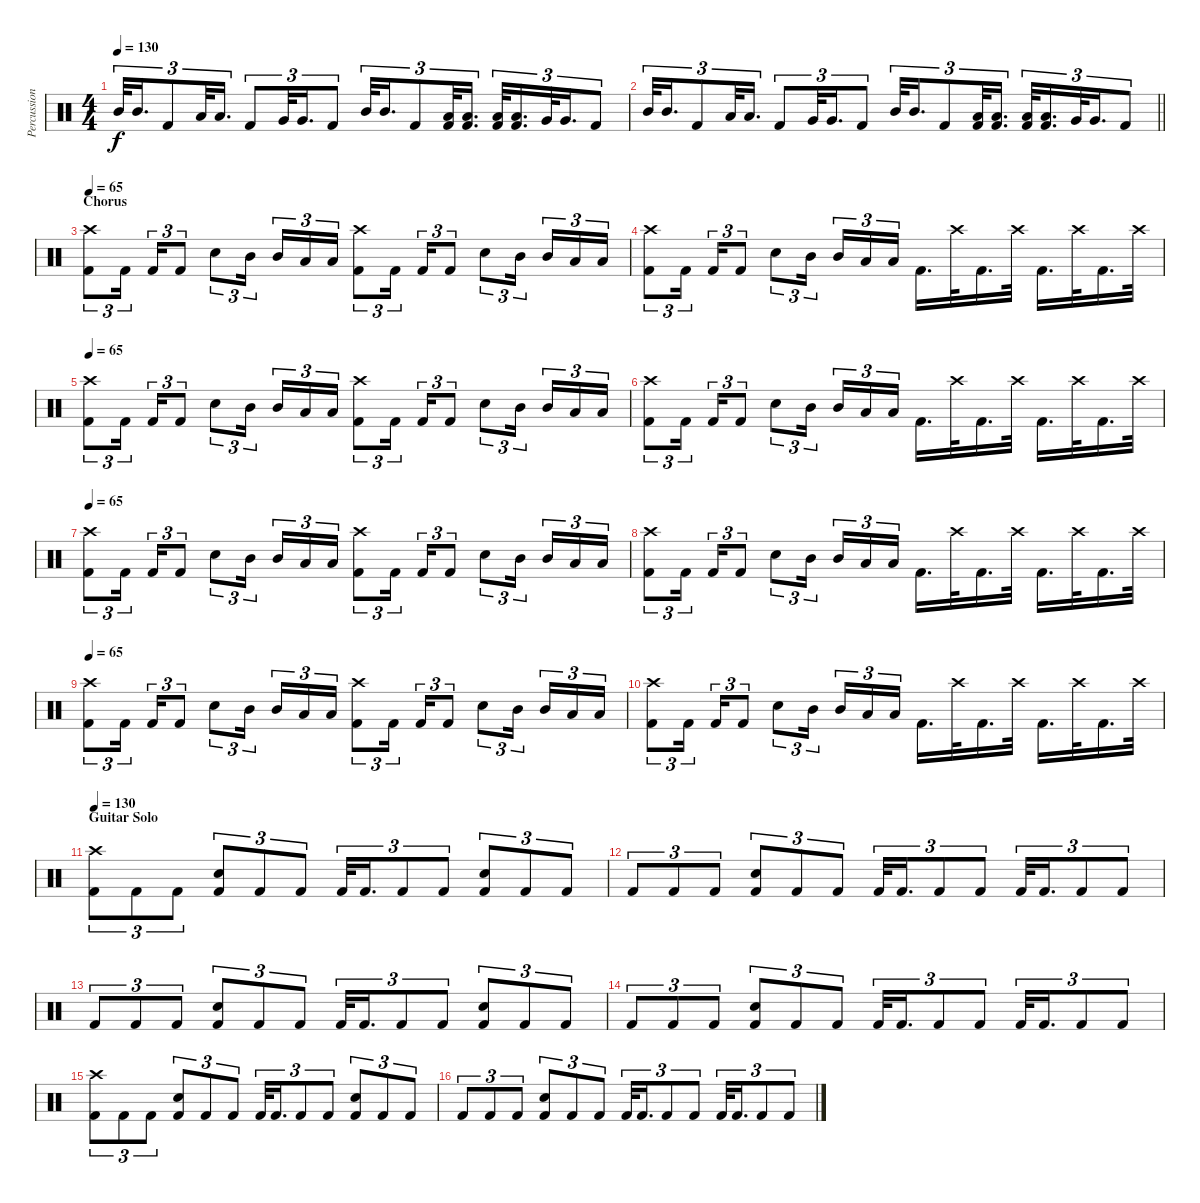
\track ("Percussions" "Percussion") {instrument percussion}
\staff {score}
\articulation defaults
\ts (4 4)
\tempo 130
\clef neutral
\ks c "Mid Tom (hit)".32{tu (3 2) dy f} "Mid Tom (hit)".16{d tu (3 2)} "Kick (hit) 2".8{tu (3 2)} "Low Tom (hit)".32{tu (3 2)} "Low Tom (hit)".16{d tu (3 2)} "Kick (hit) 2".8{tu (3 2)} "Very Low Tom (hit)".32{tu (3 2)} "Very Low Tom (hit)".16{d tu (3 2)} "Kick (hit) 2".8{tu (3 2)} "Mid Tom (hit)".32{tu (3 2)} "Mid Tom (hit)".16{d tu (3 2)} "Kick (hit) 2".8{tu (3 2)}
("Low Tom (hit)" "Kick (hit) 2").32{tu (3 2)} ("Low Tom (hit)" "Kick (hit) 2").16{d tu (3 2)} ("Low Tom (hit)" "Kick (hit) 2").32{tu (3 2)} ("Low Tom (hit)" "Kick (hit) 2").16{d tu (3 2)} "Very Low Tom (hit)".32{tu (3 2)} "Very Low Tom (hit)".16{d tu (3 2)} "Kick (hit) 2".8{tu (3 2)} |
\barLineRight lightlight "Mid Tom (hit)".32{tu (3 2)} "Mid Tom (hit)".16{d tu (3 2)} "Kick (hit) 2".8{tu (3 2)} "Low Tom (hit)".32{tu (3 2)} "Low Tom (hit)".16{d tu (3 2)} "Kick (hit) 2".8{tu (3 2)} "Very Low Tom (hit)".32{tu (3 2)} "Very Low Tom (hit)".16{d tu (3 2)} "Kick (hit) 2".8{tu (3 2)} "Mid Tom (hit)".32{tu (3 2)} "Mid Tom (hit)".16{d tu (3 2)} "Kick (hit) 2".8{tu (3 2)}
("Low Tom (hit)" "Kick (hit) 2").32{tu (3 2)} ("Low Tom (hit)" "Kick (hit) 2").16{d tu (3 2)} ("Low Tom (hit)" "Kick (hit) 2").32{tu (3 2)} ("Low Tom (hit)" "Kick (hit) 2").16{d tu (3 2)} "Very Low Tom (hit)".32{tu (3 2)} "Very Low Tom (hit)".16{d tu (3 2)} "Kick (hit) 2".8{tu (3 2)} |
\section ("" "Chorus ")
\tempo 65
("Crash high (hit)" "Kick (hit) 2").8{tu (3 2)} "Kick (hit) 2".16{tu (3 2) beam splitsecondary} "Kick (hit) 2".16{tu (3 2)} "Kick (hit) 2".8{tu (3 2)} "Electric Snare (hit)".8{tu (3 2)} "Mid Tom (hit)".16{tu (3 2) beam splitsecondary} "Mid Tom (hit)".16{tu (3 2)} "Low Tom (hit)".16{tu (3 2)} "Low Tom (hit)".16{tu (3 2)} ("Crash high (hit)" "Kick (hit) 2").8{tu (3 2)} "Kick (hit) 2".16{tu (3 2) beam splitsecondary} "Kick (hit) 2".16{tu (3 2)} "Kick (hit) 2".8{tu (3 2)} "Electric Snare (hit)".8{tu (3 2)} "Mid Tom (hit)".16{tu (3 2) beam splitsecondary} "Mid Tom (hit)".16{tu (3 2)} "Low Tom (hit)".16{tu (3 2)} "Low Tom (hit)".16{tu (3 2)} |
("Crash high (hit)" "Kick (hit) 2").8{tu (3 2)} "Kick (hit) 2".16{tu (3 2) beam splitsecondary} "Kick (hit) 2".16{tu (3 2)} "Kick (hit) 2".8{tu (3 2)} "Electric Snare (hit)".8{tu (3 2)} "Mid Tom (hit)".16{tu (3 2) beam splitsecondary} "Mid Tom (hit)".16{tu (3 2)} "Low Tom (hit)".16{tu (3 2)} "Low Tom (hit)".16{tu (3 2)} "Kick (hit) 2".16{d} "Crash high (hit)".32 "Kick (hit) 2".16{d} "Crash high (hit)".32 "Kick (hit) 2".16{d} "Crash high (hit)".32 "Kick (hit) 2".16{d} "Crash high (hit)".32 |
\tempo 65
("Crash high (hit)" "Kick (hit) 2").8{tu (3 2)} "Kick (hit) 2".16{tu (3 2) beam splitsecondary} "Kick (hit) 2".16{tu (3 2)} "Kick (hit) 2".8{tu (3 2)} "Electric Snare (hit)".8{tu (3 2)} "Mid Tom (hit)".16{tu (3 2) beam splitsecondary} "Mid Tom (hit)".16{tu (3 2)} "Low Tom (hit)".16{tu (3 2)} "Low Tom (hit)".16{tu (3 2)} ("Crash high (hit)" "Kick (hit) 2").8{tu (3 2)} "Kick (hit) 2".16{tu (3 2) beam splitsecondary} "Kick (hit) 2".16{tu (3 2)} "Kick (hit) 2".8{tu (3 2)} "Electric Snare (hit)".8{tu (3 2)} "Mid Tom (hit)".16{tu (3 2) beam splitsecondary} "Mid Tom (hit)".16{tu (3 2)} "Low Tom (hit)".16{tu (3 2)} "Low Tom (hit)".16{tu (3 2)} |
("Crash high (hit)" "Kick (hit) 2").8{tu (3 2)} "Kick (hit) 2".16{tu (3 2) beam splitsecondary} "Kick (hit) 2".16{tu (3 2)} "Kick (hit) 2".8{tu (3 2)} "Electric Snare (hit)".8{tu (3 2)} "Mid Tom (hit)".16{tu (3 2) beam splitsecondary} "Mid Tom (hit)".16{tu (3 2)} "Low Tom (hit)".16{tu (3 2)} "Low Tom (hit)".16{tu (3 2)} "Kick (hit) 2".16{d} "Crash high (hit)".32 "Kick (hit) 2".16{d} "Crash high (hit)".32 "Kick (hit) 2".16{d} "Crash high (hit)".32 "Kick (hit) 2".16{d} "Crash high (hit)".32 |
\tempo 65
("Crash high (hit)" "Kick (hit) 2").8{tu (3 2)} "Kick (hit) 2".16{tu (3 2) beam splitsecondary} "Kick (hit) 2".16{tu (3 2)} "Kick (hit) 2".8{tu (3 2)} "Electric Snare (hit)".8{tu (3 2)} "Mid Tom (hit)".16{tu (3 2) beam splitsecondary} "Mid Tom (hit)".16{tu (3 2)} "Low Tom (hit)".16{tu (3 2)} "Low Tom (hit)".16{tu (3 2)} ("Crash high (hit)" "Kick (hit) 2").8{tu (3 2)} "Kick (hit) 2".16{tu (3 2) beam splitsecondary} "Kick (hit) 2".16{tu (3 2)} "Kick (hit) 2".8{tu (3 2)} "Electric Snare (hit)".8{tu (3 2)} "Mid Tom (hit)".16{tu (3 2) beam splitsecondary} "Mid Tom (hit)".16{tu (3 2)} "Low Tom (hit)".16{tu (3 2)} "Low Tom (hit)".16{tu (3 2)} |
("Crash high (hit)" "Kick (hit) 2").8{tu (3 2)} "Kick (hit) 2".16{tu (3 2) beam splitsecondary} "Kick (hit) 2".16{tu (3 2)} "Kick (hit) 2".8{tu (3 2)} "Electric Snare (hit)".8{tu (3 2)} "Mid Tom (hit)".16{tu (3 2) beam splitsecondary} "Mid Tom (hit)".16{tu (3 2)} "Low Tom (hit)".16{tu (3 2)} "Low Tom (hit)".16{tu (3 2)} "Kick (hit) 2".16{d} "Crash high (hit)".32 "Kick (hit) 2".16{d} "Crash high (hit)".32 "Kick (hit) 2".16{d} "Crash high (hit)".32 "Kick (hit) 2".16{d} "Crash high (hit)".32 |
\tempo 65
("Crash high (hit)" "Kick (hit) 2").8{tu (3 2)} "Kick (hit) 2".16{tu (3 2) beam splitsecondary} "Kick (hit) 2".16{tu (3 2)} "Kick (hit) 2".8{tu (3 2)} "Electric Snare (hit)".8{tu (3 2)} "Mid Tom (hit)".16{tu (3 2) beam splitsecondary} "Mid Tom (hit)".16{tu (3 2)} "Low Tom (hit)".16{tu (3 2)} "Low Tom (hit)".16{tu (3 2)} ("Crash high (hit)" "Kick (hit) 2").8{tu (3 2)} "Kick (hit) 2".16{tu (3 2) beam splitsecondary} "Kick (hit) 2".16{tu (3 2)} "Kick (hit) 2".8{tu (3 2)} "Electric Snare (hit)".8{tu (3 2)} "Mid Tom (hit)".16{tu (3 2) beam splitsecondary} "Mid Tom (hit)".16{tu (3 2)} "Low Tom (hit)".16{tu (3 2)} "Low Tom (hit)".16{tu (3 2)} |
("Crash high (hit)" "Kick (hit) 2").8{tu (3 2)} "Kick (hit) 2".16{tu (3 2) beam splitsecondary} "Kick (hit) 2".16{tu (3 2)} "Kick (hit) 2".8{tu (3 2)} "Electric Snare (hit)".8{tu (3 2)} "Mid Tom (hit)".16{tu (3 2) beam splitsecondary} "Mid Tom (hit)".16{tu (3 2)} "Low Tom (hit)".16{tu (3 2)} "Low Tom (hit)".16{tu (3 2)} "Kick (hit) 2".16{d} "Crash high (hit)".32 "Kick (hit) 2".16{d} "Crash high (hit)".32 "Kick (hit) 2".16{d} "Crash high (hit)".32 "Kick (hit) 2".16{d} "Crash high (hit)".32 |
\section ("" "Guitar Solo")
\tempo 130
("Crash high (hit)" "Kick (hit) 2").8{tu (3 2)} "Kick (hit) 2".8{tu (3 2)} "Kick (hit) 2".8{tu (3 2)} ("Electric Snare (hit)" "Kick (hit) 2").8{tu (3 2)} "Kick (hit) 2".8{tu (3 2)} "Kick (hit) 2".8{tu (3 2)} "Kick (hit) 2".32{tu (3 2)} "Kick (hit) 2".16{d tu (3 2)} "Kick (hit) 2".8{tu (3 2)} "Kick (hit) 2".8{tu (3 2)} ("Electric Snare (hit)" "Kick (hit) 2").8{tu (3 2)} "Kick (hit) 2".8{tu (3 2)} "Kick (hit) 2".8{tu (3 2)} |
"Kick (hit) 2".8{tu (3 2)} "Kick (hit) 2".8{tu (3 2)} "Kick (hit) 2".8{tu (3 2)} ("Electric Snare (hit)" "Kick (hit) 2").8{tu (3 2)} "Kick (hit) 2".8{tu (3 2)} "Kick (hit) 2".8{tu (3 2)} "Kick (hit) 2".32{tu (3 2)} "Kick (hit) 2".16{d tu (3 2)} "Kick (hit) 2".8{tu (3 2)} "Kick (hit) 2".8{tu (3 2)} "Kick (hit) 2".32{tu (3 2)} "Kick (hit) 2".16{d tu (3 2)} "Kick (hit) 2".8{tu (3 2)} "Kick (hit) 2".8{tu (3 2)} |
"Kick (hit) 2".8{tu (3 2)} "Kick (hit) 2".8{tu (3 2)} "Kick (hit) 2".8{tu (3 2)} ("Electric Snare (hit)" "Kick (hit) 2").8{tu (3 2)} "Kick (hit) 2".8{tu (3 2)} "Kick (hit) 2".8{tu (3 2)} "Kick (hit) 2".32{tu (3 2)} "Kick (hit) 2".16{d tu (3 2)} "Kick (hit) 2".8{tu (3 2)} "Kick (hit) 2".8{tu (3 2)} ("Electric Snare (hit)" "Kick (hit) 2").8{tu (3 2)} "Kick (hit) 2".8{tu (3 2)} "Kick (hit) 2".8{tu (3 2)} |
"Kick (hit) 2".8{tu (3 2)} "Kick (hit) 2".8{tu (3 2)} "Kick (hit) 2".8{tu (3 2)} ("Electric Snare (hit)" "Kick (hit) 2").8{tu (3 2)} "Kick (hit) 2".8{tu (3 2)} "Kick (hit) 2".8{tu (3 2)} "Kick (hit) 2".32{tu (3 2)} "Kick (hit) 2".16{d tu (3 2)} "Kick (hit) 2".8{tu (3 2)} "Kick (hit) 2".8{tu (3 2)} "Kick (hit) 2".32{tu (3 2)} "Kick (hit) 2".16{d tu (3 2)} "Kick (hit) 2".8{tu (3 2)} "Kick (hit) 2".8{tu (3 2)} |
("Crash high (hit)" "Kick (hit) 2").8{tu (3 2)} "Kick (hit) 2".8{tu (3 2)} "Kick (hit) 2".8{tu (3 2)} ("Electric Snare (hit)" "Kick (hit) 2").8{tu (3 2)} "Kick (hit) 2".8{tu (3 2)} "Kick (hit) 2".8{tu (3 2)} "Kick (hit) 2".32{tu (3 2)} "Kick (hit) 2".16{d tu (3 2)} "Kick (hit) 2".8{tu (3 2)} "Kick (hit) 2".8{tu (3 2)} ("Electric Snare (hit)" "Kick (hit) 2").8{tu (3 2)} "Kick (hit) 2".8{tu (3 2)} "Kick (hit) 2".8{tu (3 2)} |
"Kick (hit) 2".8{tu (3 2)} "Kick (hit) 2".8{tu (3 2)} "Kick (hit) 2".8{tu (3 2)} ("Electric Snare (hit)" "Kick (hit) 2").8{tu (3 2)} "Kick (hit) 2".8{tu (3 2)} "Kick (hit) 2".8{tu (3 2)} "Kick (hit) 2".32{tu (3 2)} "Kick (hit) 2".16{d tu (3 2)} "Kick (hit) 2".8{tu (3 2)} "Kick (hit) 2".8{tu (3 2)} "Kick (hit) 2".32{tu (3 2)} "Kick (hit) 2".16{d tu (3 2)} "Kick (hit) 2".8{tu (3 2)} "Kick (hit) 2".8{tu (3 2)}
